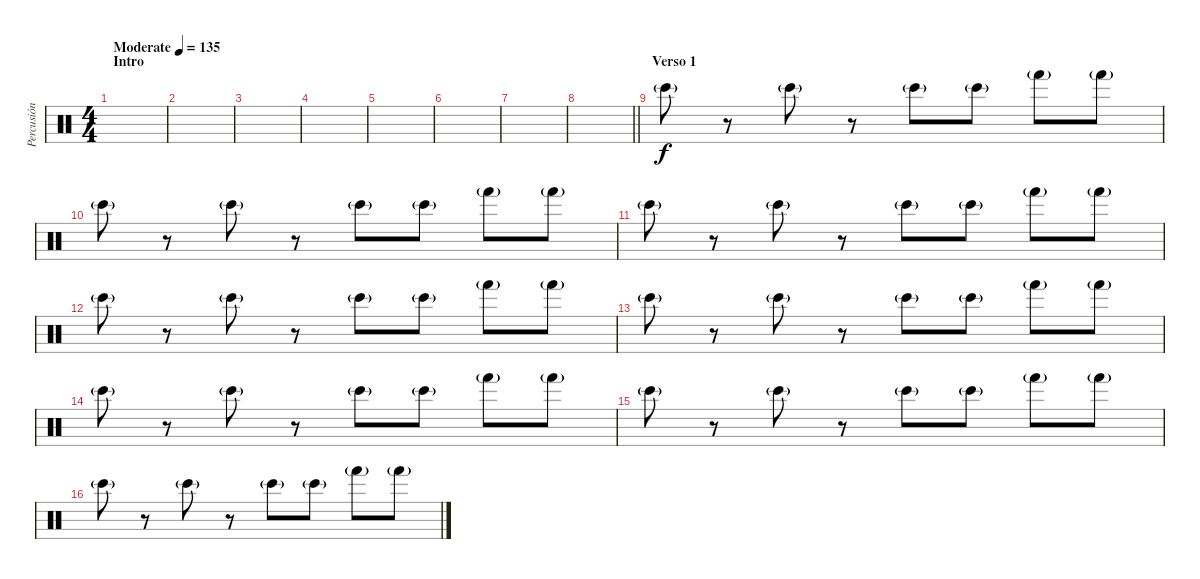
\track ("Percusión" "Percusión") {instrument percussion}
\staff {score}
\articulation defaults
\ts (4 4)
\section ("" "Intro")
\tempo (135 "Moderate")
\clef neutral
\ks c
|
|
|
|
|
|
|
\barLineRight lightlight
|
\section ("" "Verso 1")
"Bongo High (hit)"{g}.8 r.8 "Bongo High (hit)"{g}.8 r.8 "Bongo High (hit)"{g}.8 "Bongo High (hit)"{g}.8 "Hand (hit)"{g}.8 "Hand (hit)"{g}.8 |
"Bongo High (hit)"{g}.8 r.8 "Bongo High (hit)"{g}.8 r.8 "Bongo High (hit)"{g}.8 "Bongo High (hit)"{g}.8 "Hand (hit)"{g}.8 "Hand (hit)"{g}.8 |
"Bongo High (hit)"{g}.8 r.8 "Bongo High (hit)"{g}.8 r.8 "Bongo High (hit)"{g}.8 "Bongo High (hit)"{g}.8 "Hand (hit)"{g}.8 "Hand (hit)"{g}.8 |
"Bongo High (hit)"{g}.8 r.8 "Bongo High (hit)"{g}.8 r.8 "Bongo High (hit)"{g}.8 "Bongo High (hit)"{g}.8 "Hand (hit)"{g}.8 "Hand (hit)"{g}.8 |
"Bongo High (hit)"{g}.8 r.8 "Bongo High (hit)"{g}.8 r.8 "Bongo High (hit)"{g}.8 "Bongo High (hit)"{g}.8 "Hand (hit)"{g}.8 "Hand (hit)"{g}.8 |
"Bongo High (hit)"{g}.8 r.8 "Bongo High (hit)"{g}.8 r.8 "Bongo High (hit)"{g}.8 "Bongo High (hit)"{g}.8 "Hand (hit)"{g}.8 "Hand (hit)"{g}.8 |
"Bongo High (hit)"{g}.8 r.8 "Bongo High (hit)"{g}.8 r.8 "Bongo High (hit)"{g}.8 "Bongo High (hit)"{g}.8 "Hand (hit)"{g}.8 "Hand (hit)"{g}.8 |
"Bongo High (hit)"{g}.8 r.8 "Bongo High (hit)"{g}.8 r.8 "Bongo High (hit)"{g}.8 "Bongo High (hit)"{g}.8 "Hand (hit)"{g}.8 "Hand (hit)"{g}.8
